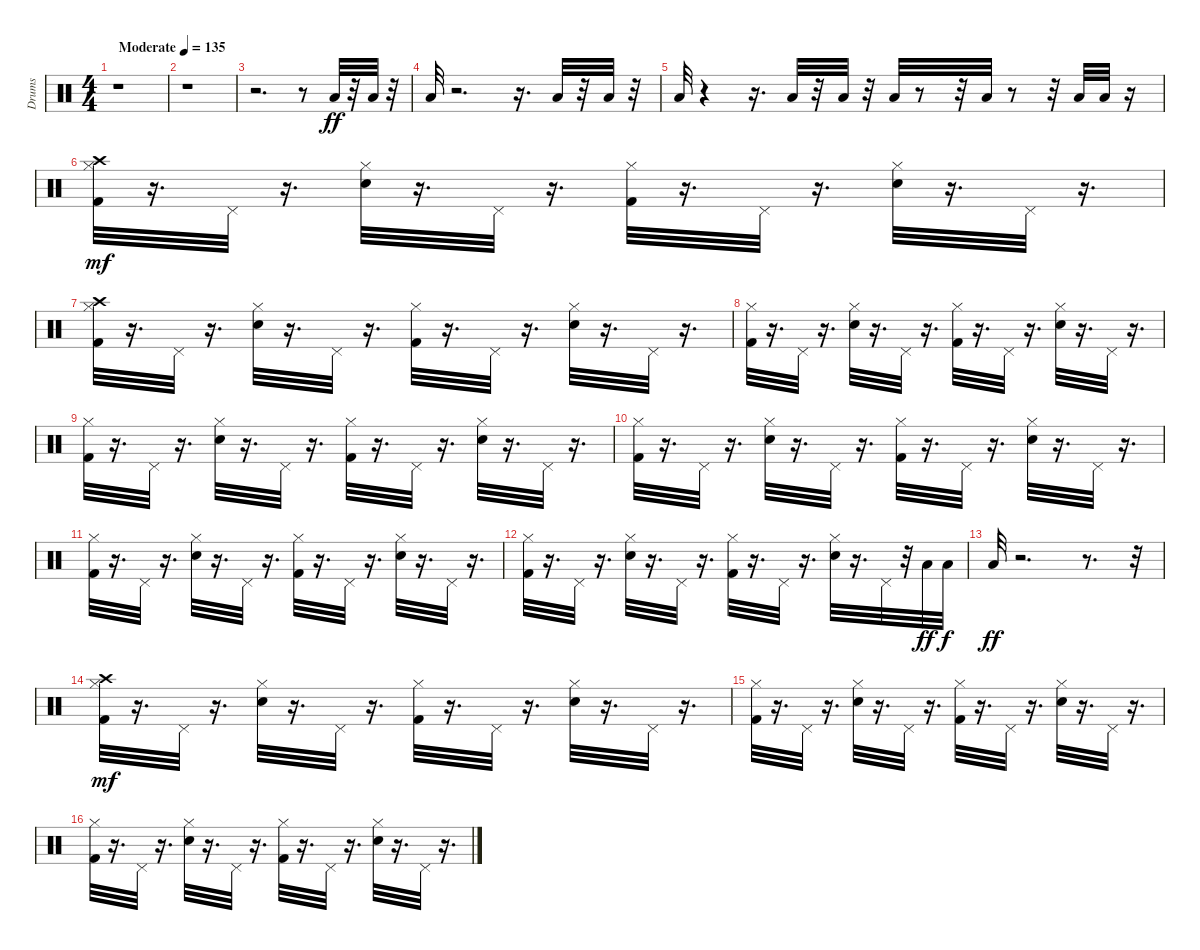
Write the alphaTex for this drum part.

\track ("Drums" "Drums") {instrument percussion}
\staff {score}
\articulation defaults
\ts (4 4)
\tempo (135 "Moderate")
\clef neutral
\ks c
r.1{dy ff} |
r.1 |
r.2{d} r.8 "Low Tom (hit)".32 r.32 "Low Tom (hit)".32 r.32 |
"Low Tom (hit)".32 r.2{d} r.16{d} "Low Tom (hit)".32 r.32 "Low Tom (hit)".32 r.32 |
"Low Tom (hit)".32 r.4 r.16{d} "Low Tom (hit)".32 r.32 "Low Tom (hit)".32 r.32 "Low Tom (hit)".32 r.8 r.32 "Low Tom (hit)".32 r.8 r.32 "Low Tom (hit)".32 "Low Tom (hit)".32 r.16 |
("Hi-Hat (closed)" "Kick (hit) 2" "Crash high (hit)").32{dy mf} r.16{d} "Pedal Hi-Hat (hit)".32 r.16{d} ("Hi-Hat (closed)" "Snare (hit) 2").32 r.16{d} "Pedal Hi-Hat (hit)".32 r.16{d} ("Hi-Hat (closed)" "Kick (hit) 2").32 r.16{d} "Pedal Hi-Hat (hit)".32 r.16{d} ("Hi-Hat (closed)" "Snare (hit) 2").32 r.16{d} "Pedal Hi-Hat (hit)".32 r.16{d} |
("Crash high (hit)" "Hi-Hat (closed)" "Kick (hit) 2").32 r.16{d} "Pedal Hi-Hat (hit)".32 r.16{d} ("Hi-Hat (closed)" "Snare (hit) 2").32 r.16{d} "Pedal Hi-Hat (hit)".32 r.16{d} ("Hi-Hat (closed)" "Kick (hit) 2").32 r.16{d} "Pedal Hi-Hat (hit)".32 r.16{d} ("Hi-Hat (closed)" "Snare (hit) 2").32 r.16{d} "Pedal Hi-Hat (hit)".32 r.16{d} |
("Hi-Hat (closed)" "Kick (hit) 2").32 r.16{d} "Pedal Hi-Hat (hit)".32 r.16{d} ("Hi-Hat (closed)" "Snare (hit) 2").32 r.16{d} "Pedal Hi-Hat (hit)".32 r.16{d} ("Hi-Hat (closed)" "Kick (hit) 2").32 r.16{d} "Pedal Hi-Hat (hit)".32 r.16{d} ("Hi-Hat (closed)" "Snare (hit) 2").32 r.16{d} "Pedal Hi-Hat (hit)".32 r.16{d} |
("Hi-Hat (closed)" "Kick (hit) 2").32 r.16{d} "Pedal Hi-Hat (hit)".32 r.16{d} ("Hi-Hat (closed)" "Snare (hit) 2").32 r.16{d} "Pedal Hi-Hat (hit)".32 r.16{d} ("Hi-Hat (closed)" "Kick (hit) 2").32 r.16{d} "Pedal Hi-Hat (hit)".32 r.16{d} ("Hi-Hat (closed)" "Snare (hit) 2").32 r.16{d} "Pedal Hi-Hat (hit)".32 r.16{d} |
("Hi-Hat (closed)" "Kick (hit) 2").32 r.16{d} "Pedal Hi-Hat (hit)".32 r.16{d} ("Hi-Hat (closed)" "Snare (hit) 2").32 r.16{d} "Pedal Hi-Hat (hit)".32 r.16{d} ("Hi-Hat (closed)" "Kick (hit) 2").32 r.16{d} "Pedal Hi-Hat (hit)".32 r.16{d} ("Hi-Hat (closed)" "Snare (hit) 2").32 r.16{d} "Pedal Hi-Hat (hit)".32 r.16{d} |
("Hi-Hat (closed)" "Kick (hit) 2").32 r.16{d} "Pedal Hi-Hat (hit)".32 r.16{d} ("Hi-Hat (closed)" "Snare (hit) 2").32 r.16{d} "Pedal Hi-Hat (hit)".32 r.16{d} ("Hi-Hat (closed)" "Kick (hit) 2").32 r.16{d} "Pedal Hi-Hat (hit)".32 r.16{d} ("Hi-Hat (closed)" "Snare (hit) 2").32 r.16{d} "Pedal Hi-Hat (hit)".32 r.16{d} |
("Hi-Hat (closed)" "Kick (hit) 2").32 r.16{d} "Pedal Hi-Hat (hit)".32 r.16{d} ("Hi-Hat (closed)" "Snare (hit) 2").32 r.16{d} "Pedal Hi-Hat (hit)".32 r.16{d} ("Hi-Hat (closed)" "Kick (hit) 2").32 r.16{d} "Pedal Hi-Hat (hit)".32 r.16{d} ("Hi-Hat (closed)" "Snare (hit) 2").32 r.16{d} "Pedal Hi-Hat (hit)".32 r.32 "Low Tom (hit)".32{dy ff} "Low Tom (hit)".32{dy f} |
"Low Tom (hit)".32{dy ff} r.2{d} r.8{d} r.32 |
("Crash high (hit)" "Hi-Hat (closed)" "Kick (hit) 2").32{dy mf} r.16{d} "Pedal Hi-Hat (hit)".32 r.16{d} ("Hi-Hat (closed)" "Snare (hit) 2").32 r.16{d} "Pedal Hi-Hat (hit)".32 r.16{d} ("Hi-Hat (closed)" "Kick (hit) 2").32 r.16{d} "Pedal Hi-Hat (hit)".32 r.16{d} ("Hi-Hat (closed)" "Snare (hit) 2").32 r.16{d} "Pedal Hi-Hat (hit)".32 r.16{d} |
("Hi-Hat (closed)" "Kick (hit) 2").32 r.16{d} "Pedal Hi-Hat (hit)".32 r.16{d} ("Hi-Hat (closed)" "Snare (hit) 2").32 r.16{d} "Pedal Hi-Hat (hit)".32 r.16{d} ("Hi-Hat (closed)" "Kick (hit) 2").32 r.16{d} "Pedal Hi-Hat (hit)".32 r.16{d} ("Hi-Hat (closed)" "Snare (hit) 2").32 r.16{d} "Pedal Hi-Hat (hit)".32 r.16{d} |
("Hi-Hat (closed)" "Kick (hit) 2").32 r.16{d} "Pedal Hi-Hat (hit)".32 r.16{d} ("Hi-Hat (closed)" "Snare (hit) 2").32 r.16{d} "Pedal Hi-Hat (hit)".32 r.16{d} ("Hi-Hat (closed)" "Kick (hit) 2").32 r.16{d} "Pedal Hi-Hat (hit)".32 r.16{d} ("Hi-Hat (closed)" "Snare (hit) 2").32 r.16{d} "Pedal Hi-Hat (hit)".32 r.16{d}
